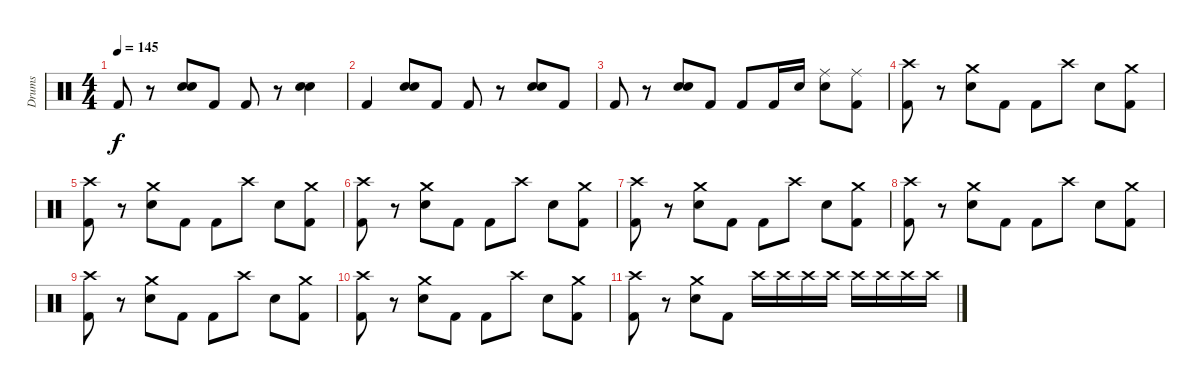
\track ("Drums" "Drums") {instrument percussion}
\staff {score}
\articulation defaults
\ts (4 4)
\tempo 145
\clef neutral
\ks c "Kick (hit) 2".8{dy f}
r.8 ("Electric Snare (hit)" "Electric Snare (hit)").8 "Kick (hit) 2".8 "Kick (hit) 2".8 r.8 ("Electric Snare (hit)" "Electric Snare (hit)").4 |
"Kick (hit) 2".4 ("Electric Snare (hit)" "Electric Snare (hit)").8 "Kick (hit) 2".8 "Kick (hit) 2".8 r.8 ("Electric Snare (hit)" "Electric Snare (hit)").8 "Kick (hit) 2".8 |
"Kick (hit) 2".8 r.8 ("Electric Snare (hit)" "Electric Snare (hit)").8 "Kick (hit) 2".8 "Kick (hit) 2".8 "Kick (hit) 2".16 "Electric Snare (hit)".16 ("Electric Snare (hit)" "Ride (middle)").8 ("Kick (hit) 2" "Ride (middle)").8 |
("Kick (hit) 2" "Crash high (hit)").8 r.8 ("Electric Snare (hit)" "Crash medium (hit)").8 "Kick (hit) 2".8 "Kick (hit) 2".8 "Crash high (hit)".8 "Electric Snare (hit)".8 ("Kick (hit) 2" "Crash medium (hit)").8 |
("Kick (hit) 2" "Crash high (hit)").8 r.8 ("Electric Snare (hit)" "Crash medium (hit)").8 "Kick (hit) 2".8 "Kick (hit) 2".8 "Crash high (hit)".8 "Electric Snare (hit)".8 ("Kick (hit) 2" "Crash medium (hit)").8 |
("Kick (hit) 2" "Crash high (hit)").8 r.8 ("Electric Snare (hit)" "Crash medium (hit)").8 "Kick (hit) 2".8 "Kick (hit) 2".8 "Crash high (hit)".8 "Electric Snare (hit)".8 ("Kick (hit) 2" "Crash medium (hit)").8 |
("Kick (hit) 2" "Crash high (hit)").8 r.8 ("Electric Snare (hit)" "Crash medium (hit)").8 "Kick (hit) 2".8 "Kick (hit) 2".8 "Crash high (hit)".8 "Electric Snare (hit)".8 ("Kick (hit) 2" "Crash medium (hit)").8 |
("Kick (hit) 2" "Crash high (hit)").8 r.8 ("Electric Snare (hit)" "Crash medium (hit)").8 "Kick (hit) 2".8 "Kick (hit) 2".8 "Crash high (hit)".8 "Electric Snare (hit)".8 ("Kick (hit) 2" "Crash medium (hit)").8 |
("Kick (hit) 2" "Crash high (hit)").8 r.8 ("Electric Snare (hit)" "Crash medium (hit)").8 "Kick (hit) 2".8 "Kick (hit) 2".8 "Crash high (hit)".8 "Electric Snare (hit)".8 ("Kick (hit) 2" "Crash medium (hit)").8 |
("Kick (hit) 2" "Crash high (hit)").8 r.8 ("Electric Snare (hit)" "Crash medium (hit)").8 "Kick (hit) 2".8 "Kick (hit) 2".8 "Crash high (hit)".8 "Electric Snare (hit)".8 ("Kick (hit) 2" "Crash medium (hit)").8 |
("Kick (hit) 2" "Crash high (hit)").8 r.8 ("Electric Snare (hit)" "Crash medium (hit)").8 "Kick (hit) 2".8 "Crash high (hit)".16 "Crash high (hit)".16 "Crash high (hit)".16 "Crash high (hit)".16 "Crash high (hit)".16 "Crash high (hit)".16 "Crash high (hit)".16 "Crash high (hit)".16
